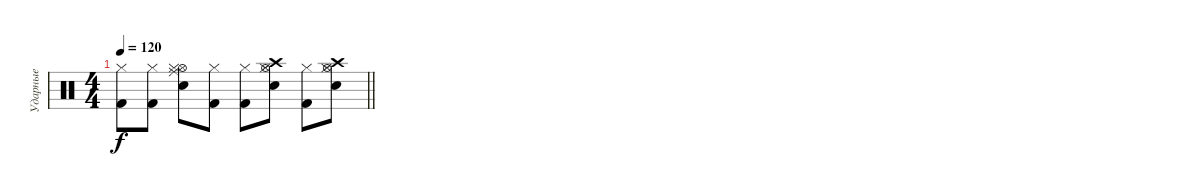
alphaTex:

\track ("Ударные" "Ударные") {instrument percussion}
\staff {score}
\articulation defaults
\ts (4 4)
\tempo 120
\clef neutral
\barLineRight lightlight
\ks c
("Kick (hit) 2" "Hi-Hat (closed)").8{dy f} ("Kick (hit) 2" "Hi-Hat (closed)").8 ("Ride (middle)" "Hi-Hat (open)" "Hi-Hat (closed)" "Snare (hit) 2").8 ("Kick (hit) 2" "Hi-Hat (closed)").8 ("Kick (hit) 2" "Hi-Hat (closed)").8 ("Crash high (hit)" "Hi-Hat (open)" "Hi-Hat (closed)" "Snare (hit) 2").8 ("Kick (hit) 2" "Hi-Hat (closed)").8 ("Crash high (hit)" "Hi-Hat (open)" "Hi-Hat (closed)" "Snare (hit) 2").8
